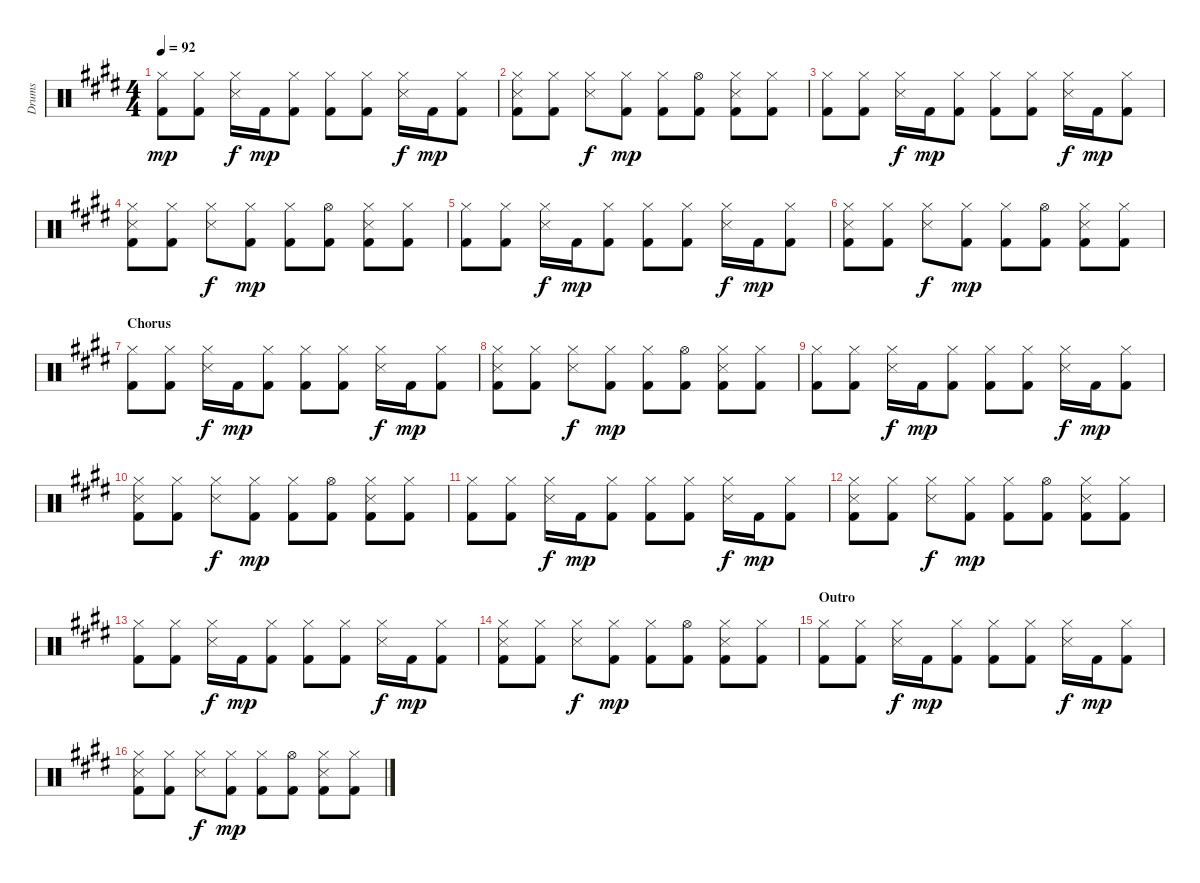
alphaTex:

\track ("Drums" "Drums") {instrument percussion}
\staff {score}
\articulation defaults
\ts (4 4)
\tempo 92
\clef neutral
\ks e
("Hi-Hat (closed)" "Kick (hit) 2").8{dy mp} ("Hi-Hat (closed)" "Kick (hit) 2").8 ("Hi-Hat (closed)" "Snare (side stick) 3").16{dy f} "Kick (hit) 2".16{dy mp} ("Hi-Hat (closed)" "Kick (hit) 2").8 ("Hi-Hat (closed)" "Kick (hit) 2").8 ("Hi-Hat (closed)" "Kick (hit) 2").8 ("Hi-Hat (closed)" "Snare (side stick) 3").16{dy f} "Kick (hit) 2".16{dy mp} ("Hi-Hat (closed)" "Kick (hit) 2").8 |
("Hi-Hat (closed)" "Snare (side stick) 3" "Kick (hit) 2").8 ("Hi-Hat (closed)" "Kick (hit) 2").8 ("Hi-Hat (closed)" "Snare (side stick) 3").8{dy f} ("Hi-Hat (closed)" "Kick (hit) 2").8{dy mp} ("Hi-Hat (closed)" "Kick (hit) 2").8 ("Hi-Hat (open)" "Kick (hit) 2").8 ("Hi-Hat (closed)" "Snare (side stick) 3" "Kick (hit) 2").8 ("Hi-Hat (closed)" "Kick (hit) 2").8 |
("Hi-Hat (closed)" "Kick (hit) 2").8 ("Hi-Hat (closed)" "Kick (hit) 2").8 ("Hi-Hat (closed)" "Snare (side stick) 3").16{dy f} "Kick (hit) 2".16{dy mp} ("Hi-Hat (closed)" "Kick (hit) 2").8 ("Hi-Hat (closed)" "Kick (hit) 2").8 ("Hi-Hat (closed)" "Kick (hit) 2").8 ("Hi-Hat (closed)" "Snare (side stick) 3").16{dy f} "Kick (hit) 2".16{dy mp} ("Hi-Hat (closed)" "Kick (hit) 2").8 |
("Hi-Hat (closed)" "Snare (side stick) 3" "Kick (hit) 2").8 ("Hi-Hat (closed)" "Kick (hit) 2").8 ("Hi-Hat (closed)" "Snare (side stick) 3").8{dy f} ("Hi-Hat (closed)" "Kick (hit) 2").8{dy mp} ("Hi-Hat (closed)" "Kick (hit) 2").8 ("Hi-Hat (open)" "Kick (hit) 2").8 ("Hi-Hat (closed)" "Snare (side stick) 3" "Kick (hit) 2").8 ("Hi-Hat (closed)" "Kick (hit) 2").8 |
("Hi-Hat (closed)" "Kick (hit) 2").8 ("Hi-Hat (closed)" "Kick (hit) 2").8 ("Hi-Hat (closed)" "Snare (side stick) 3").16{dy f} "Kick (hit) 2".16{dy mp} ("Hi-Hat (closed)" "Kick (hit) 2").8 ("Hi-Hat (closed)" "Kick (hit) 2").8 ("Hi-Hat (closed)" "Kick (hit) 2").8 ("Hi-Hat (closed)" "Snare (side stick) 3").16{dy f} "Kick (hit) 2".16{dy mp} ("Hi-Hat (closed)" "Kick (hit) 2").8 |
("Hi-Hat (closed)" "Snare (side stick) 3" "Kick (hit) 2").8 ("Hi-Hat (closed)" "Kick (hit) 2").8 ("Hi-Hat (closed)" "Snare (side stick) 3").8{dy f} ("Hi-Hat (closed)" "Kick (hit) 2").8{dy mp} ("Hi-Hat (closed)" "Kick (hit) 2").8 ("Hi-Hat (open)" "Kick (hit) 2").8 ("Hi-Hat (closed)" "Snare (side stick) 3" "Kick (hit) 2").8 ("Hi-Hat (closed)" "Kick (hit) 2").8 |
\section ("" "Chorus")
("Hi-Hat (closed)" "Kick (hit) 2").8 ("Hi-Hat (closed)" "Kick (hit) 2").8 ("Hi-Hat (closed)" "Snare (side stick) 3").16{dy f} "Kick (hit) 2".16{dy mp} ("Hi-Hat (closed)" "Kick (hit) 2").8 ("Hi-Hat (closed)" "Kick (hit) 2").8 ("Hi-Hat (closed)" "Kick (hit) 2").8 ("Hi-Hat (closed)" "Snare (side stick) 3").16{dy f} "Kick (hit) 2".16{dy mp} ("Hi-Hat (closed)" "Kick (hit) 2").8 |
("Hi-Hat (closed)" "Snare (side stick) 3" "Kick (hit) 2").8 ("Hi-Hat (closed)" "Kick (hit) 2").8 ("Hi-Hat (closed)" "Snare (side stick) 3").8{dy f} ("Hi-Hat (closed)" "Kick (hit) 2").8{dy mp} ("Hi-Hat (closed)" "Kick (hit) 2").8 ("Hi-Hat (open)" "Kick (hit) 2").8 ("Hi-Hat (closed)" "Snare (side stick) 3" "Kick (hit) 2").8 ("Hi-Hat (closed)" "Kick (hit) 2").8 |
("Hi-Hat (closed)" "Kick (hit) 2").8 ("Hi-Hat (closed)" "Kick (hit) 2").8 ("Hi-Hat (closed)" "Snare (side stick) 3").16{dy f} "Kick (hit) 2".16{dy mp} ("Hi-Hat (closed)" "Kick (hit) 2").8 ("Hi-Hat (closed)" "Kick (hit) 2").8 ("Hi-Hat (closed)" "Kick (hit) 2").8 ("Hi-Hat (closed)" "Snare (side stick) 3").16{dy f} "Kick (hit) 2".16{dy mp} ("Hi-Hat (closed)" "Kick (hit) 2").8 |
("Hi-Hat (closed)" "Snare (side stick) 3" "Kick (hit) 2").8 ("Hi-Hat (closed)" "Kick (hit) 2").8 ("Hi-Hat (closed)" "Snare (side stick) 3").8{dy f} ("Hi-Hat (closed)" "Kick (hit) 2").8{dy mp} ("Hi-Hat (closed)" "Kick (hit) 2").8 ("Hi-Hat (open)" "Kick (hit) 2").8 ("Hi-Hat (closed)" "Snare (side stick) 3" "Kick (hit) 2").8 ("Hi-Hat (closed)" "Kick (hit) 2").8 |
("Hi-Hat (closed)" "Kick (hit) 2").8 ("Hi-Hat (closed)" "Kick (hit) 2").8 ("Hi-Hat (closed)" "Snare (side stick) 3").16{dy f} "Kick (hit) 2".16{dy mp} ("Hi-Hat (closed)" "Kick (hit) 2").8 ("Hi-Hat (closed)" "Kick (hit) 2").8 ("Hi-Hat (closed)" "Kick (hit) 2").8 ("Hi-Hat (closed)" "Snare (side stick) 3").16{dy f} "Kick (hit) 2".16{dy mp} ("Hi-Hat (closed)" "Kick (hit) 2").8 |
("Hi-Hat (closed)" "Snare (side stick) 3" "Kick (hit) 2").8 ("Hi-Hat (closed)" "Kick (hit) 2").8 ("Hi-Hat (closed)" "Snare (side stick) 3").8{dy f} ("Hi-Hat (closed)" "Kick (hit) 2").8{dy mp} ("Hi-Hat (closed)" "Kick (hit) 2").8 ("Hi-Hat (open)" "Kick (hit) 2").8 ("Hi-Hat (closed)" "Snare (side stick) 3" "Kick (hit) 2").8 ("Hi-Hat (closed)" "Kick (hit) 2").8 |
("Hi-Hat (closed)" "Kick (hit) 2").8 ("Hi-Hat (closed)" "Kick (hit) 2").8 ("Hi-Hat (closed)" "Snare (side stick) 3").16{dy f} "Kick (hit) 2".16{dy mp} ("Hi-Hat (closed)" "Kick (hit) 2").8 ("Hi-Hat (closed)" "Kick (hit) 2").8 ("Hi-Hat (closed)" "Kick (hit) 2").8 ("Hi-Hat (closed)" "Snare (side stick) 3").16{dy f} "Kick (hit) 2".16{dy mp} ("Hi-Hat (closed)" "Kick (hit) 2").8 |
("Hi-Hat (closed)" "Snare (side stick) 3" "Kick (hit) 2").8 ("Hi-Hat (closed)" "Kick (hit) 2").8 ("Hi-Hat (closed)" "Snare (side stick) 3").8{dy f} ("Hi-Hat (closed)" "Kick (hit) 2").8{dy mp} ("Hi-Hat (closed)" "Kick (hit) 2").8 ("Hi-Hat (open)" "Kick (hit) 2").8 ("Hi-Hat (closed)" "Snare (side stick) 3" "Kick (hit) 2").8 ("Hi-Hat (closed)" "Kick (hit) 2").8 |
\section ("" "Outro")
("Hi-Hat (closed)" "Kick (hit) 2").8 ("Hi-Hat (closed)" "Kick (hit) 2").8 ("Hi-Hat (closed)" "Snare (side stick) 3").16{dy f} "Kick (hit) 2".16{dy mp} ("Hi-Hat (closed)" "Kick (hit) 2").8 ("Hi-Hat (closed)" "Kick (hit) 2").8 ("Hi-Hat (closed)" "Kick (hit) 2").8 ("Hi-Hat (closed)" "Snare (side stick) 3").16{dy f} "Kick (hit) 2".16{dy mp} ("Hi-Hat (closed)" "Kick (hit) 2").8 |
("Hi-Hat (closed)" "Snare (side stick) 3" "Kick (hit) 2").8 ("Hi-Hat (closed)" "Kick (hit) 2").8 ("Hi-Hat (closed)" "Snare (side stick) 3").8{dy f} ("Hi-Hat (closed)" "Kick (hit) 2").8{dy mp} ("Hi-Hat (closed)" "Kick (hit) 2").8 ("Hi-Hat (open)" "Kick (hit) 2").8 ("Hi-Hat (closed)" "Snare (side stick) 3" "Kick (hit) 2").8 ("Hi-Hat (closed)" "Kick (hit) 2").8
